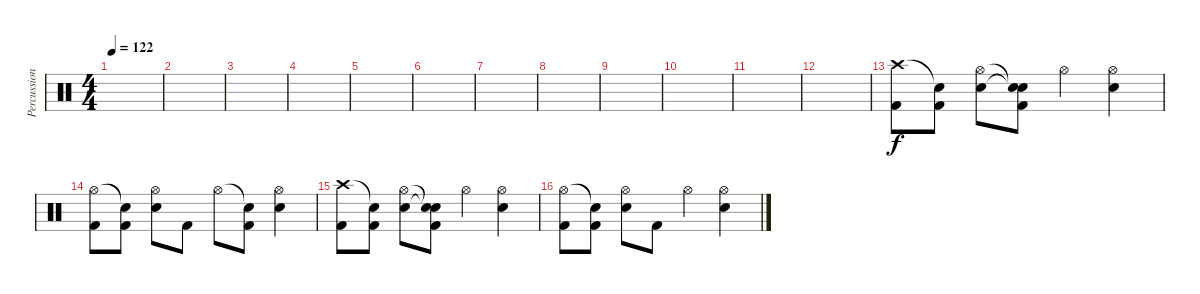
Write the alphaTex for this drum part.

\track ("Percussion" "Percussion") {instrument percussion}
\staff {score}
\articulation defaults
\ts (4 4)
\tempo 122
\clef neutral
\ks c
|
|
|
|
|
|
|
|
|
|
|
|
("Crash high (hit)" "Kick (hit) 2").8 ("Snare (hit)"{t} "Kick (hit) 2").8 ("Snare (hit) 2" "Hi-Hat (open)").8 ("Snare (hit)"{t} "Snare (hit)"{t} "Kick (hit) 2").8 "Hi-Hat (open)".4 ("Snare (hit) 2" "Hi-Hat (open)").4 |
("Hi-Hat (open)" "Kick (hit) 2").8 ("Snare (hit)"{t} "Kick (hit) 2").8 ("Snare (hit) 2" "Hi-Hat (open)").8 "Kick (hit) 2".8 "Hi-Hat (open)".8 ("Snare (hit)"{t} "Kick (hit) 2").8 ("Snare (hit) 2" "Hi-Hat (open)").4 |
("Crash high (hit)" "Kick (hit) 2").8 ("Snare (hit)"{t} "Kick (hit) 2").8 ("Snare (hit) 2" "Hi-Hat (open)").8 ("Snare (hit)"{t} "Snare (hit)"{t} "Kick (hit) 2").8 "Hi-Hat (open)".4 ("Snare (hit) 2" "Hi-Hat (open)").4 |
("Hi-Hat (open)" "Kick (hit) 2").8 ("Snare (hit)"{t} "Kick (hit) 2").8 ("Snare (hit) 2" "Hi-Hat (open)").8 "Kick (hit) 2".8 "Hi-Hat (open)".4 ("Snare (hit) 2" "Hi-Hat (open)").4
